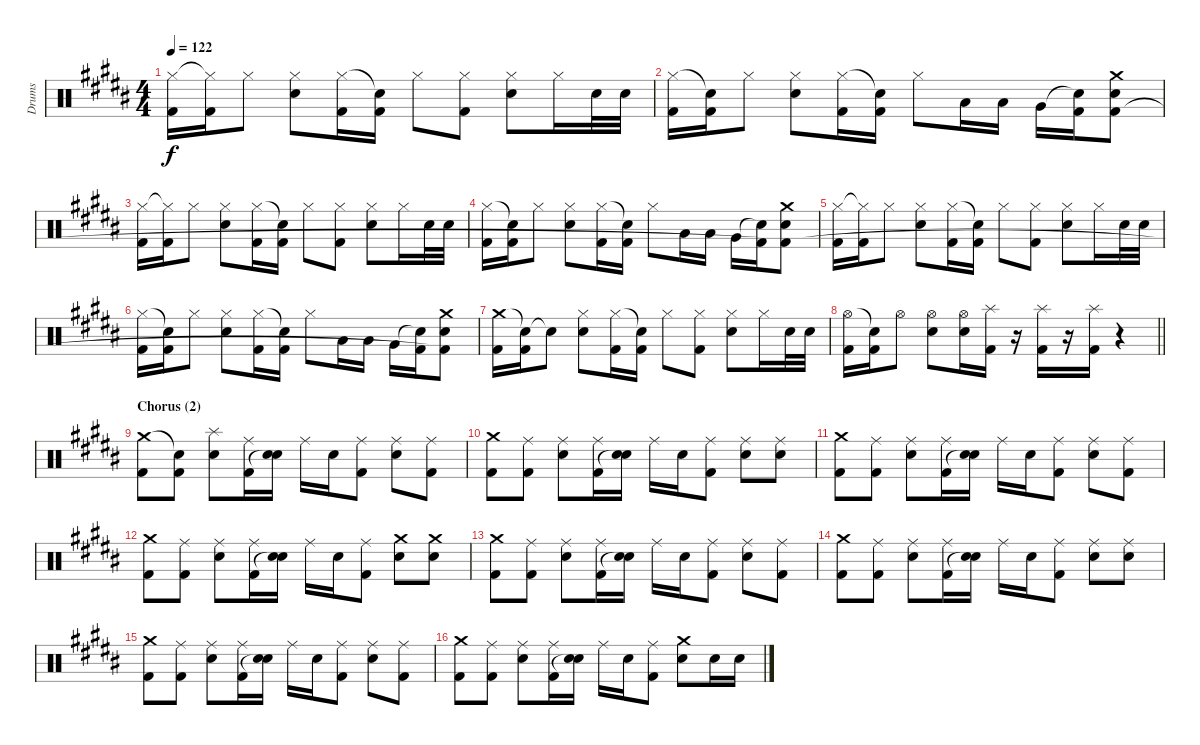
\track ("Drums" "Drums") {instrument percussion}
\staff {score}
\articulation defaults
\ts (4 4)
\tempo 122
\clef neutral
\ks g#minor
("Hi-Hat (closed)" "Kick (hit) 2").16{dy f} ("Hi-Hat (closed)"{t} "Kick (hit) 2").16 "Hi-Hat (closed)".8 ("Hi-Hat (closed)" "Electric Snare (hit)").8 ("Hi-Hat (closed)" "Kick (hit) 2").16 ("Snare (hit)"{t} "Kick (hit) 2").16 "Hi-Hat (closed)".8 ("Hi-Hat (closed)" "Kick (hit) 2").8 ("Hi-Hat (closed)" "Electric Snare (hit)").8 "Hi-Hat (closed)".16 "Electric Snare (hit)".32 "Electric Snare (hit)".32 |
("Hi-Hat (closed)" "Kick (hit) 2").16 ("Snare (hit)"{t} "Kick (hit) 2").16 "Hi-Hat (closed)".8 ("Hi-Hat (closed)" "Electric Snare (hit)").8 ("Hi-Hat (closed)" "Kick (hit) 2").16 ("Snare (hit)"{t} "Kick (hit) 2").16 "Hi-Hat (closed)".8 "Low Tom (hit)".16 "Low Tom (hit)".16 "Very Low Tom (hit)".16 ("Snare (hit)"{t} "Kick (hit) 2").16 ("Crash medium (hit)" "Electric Snare (hit)" "Kick (hit) 2"{t}).8 |
("Hi-Hat (closed)" "Kick (hit) 2").16 ("Hi-Hat (closed)"{t} "Kick (hit) 2").16 "Hi-Hat (closed)".8 ("Hi-Hat (closed)" "Electric Snare (hit)").8 ("Hi-Hat (closed)" "Kick (hit) 2").16 ("Snare (hit)"{t} "Kick (hit) 2").16 "Hi-Hat (closed)".8 ("Hi-Hat (closed)" "Kick (hit) 2").8 ("Hi-Hat (closed)" "Electric Snare (hit)").8 "Hi-Hat (closed)".16 "Electric Snare (hit)".32 "Electric Snare (hit)".32 |
("Hi-Hat (closed)" "Kick (hit) 2").16 ("Snare (hit)"{t} "Kick (hit) 2").16 "Hi-Hat (closed)".8 ("Hi-Hat (closed)" "Electric Snare (hit)").8 ("Hi-Hat (closed)" "Kick (hit) 2").16 ("Snare (hit)"{t} "Kick (hit) 2").16 "Hi-Hat (closed)".8 "Low Tom (hit)".16 "Low Tom (hit)".16 "Very Low Tom (hit)".16 ("Snare (hit)"{t} "Kick (hit) 2").16 ("Crash medium (hit)" "Electric Snare (hit)" "Kick (hit) 2"{t}).8 |
("Hi-Hat (closed)" "Kick (hit) 2").16 ("Hi-Hat (closed)"{t} "Kick (hit) 2").16 "Hi-Hat (closed)".8 ("Hi-Hat (closed)" "Electric Snare (hit)").8 ("Hi-Hat (closed)" "Kick (hit) 2").16 ("Snare (hit)"{t} "Kick (hit) 2").16 "Hi-Hat (closed)".8 ("Hi-Hat (closed)" "Kick (hit) 2").8 ("Hi-Hat (closed)" "Electric Snare (hit)").8 "Hi-Hat (closed)".16 "Electric Snare (hit)".32 "Electric Snare (hit)".32 |
("Hi-Hat (closed)" "Kick (hit) 2").16 ("Snare (hit)"{t} "Kick (hit) 2").16 "Hi-Hat (closed)".8 ("Hi-Hat (closed)" "Electric Snare (hit)").8 ("Hi-Hat (closed)" "Kick (hit) 2").16 ("Snare (hit)"{t} "Kick (hit) 2").16 "Hi-Hat (closed)".8 "Low Tom (hit)".16 "Low Tom (hit)".16 "Very Low Tom (hit)".16 ("Snare (hit)"{t} "Kick (hit) 2").16 ("Crash medium (hit)" "Electric Snare (hit)" "Kick (hit) 2"{t}).8 |
("Crash medium (hit)" "Kick (hit) 2").16 ("Snare (hit)"{t} "Kick (hit) 2").16 "Snare (hit)"{t}.8 ("Hi-Hat (closed)" "Electric Snare (hit)").8 ("Hi-Hat (closed)" "Kick (hit) 2").16 ("Snare (hit)"{t} "Kick (hit) 2").16 "Hi-Hat (closed)".8 ("Hi-Hat (closed)" "Kick (hit) 2").8 ("Hi-Hat (closed)" "Electric Snare (hit)").8 "Hi-Hat (closed)".16 "Electric Snare (hit)".32 "Electric Snare (hit)".32 |
\barLineRight lightlight
("Hi-Hat (open)" "Kick (hit) 2").16 ("Snare (hit)"{t} "Kick (hit) 2").16 "Hi-Hat (open)".8 ("Hi-Hat (open)" "Electric Snare (hit)").8 ("Hi-Hat (open)" "Electric Snare (hit)").16 ("Splash (hit)" "Kick (hit) 2").16 r.16 ("Splash (hit)" "Kick (hit) 2").16 r.16 ("Splash (hit)" "Kick (hit) 2").16 r.4 |
\section ("" "Chorus (2)")
("Crash medium (hit)" "Kick (hit) 2").8 ("Snare (hit)"{t} "Kick (hit) 2").8 ("Splash (hit)" "Electric Snare (hit)").8 ("Ride (middle)" "Kick (hit) 2").16 ("Electric Snare (hit)" "Snare (hit)"{t}).16 "Ride (middle)".16 "Electric Snare (hit)".16 ("Ride (middle)" "Kick (hit) 2").8 ("Ride (middle)" "Electric Snare (hit)").8 ("Ride (middle)" "Kick (hit) 2").8 |
("Crash medium (hit)" "Kick (hit) 2").8 ("Ride (middle)" "Kick (hit) 2").8 ("Ride (middle)" "Electric Snare (hit)").8 ("Ride (middle)" "Kick (hit) 2").16 ("Electric Snare (hit)" "Snare (hit)"{t}).16 "Ride (middle)".16 "Electric Snare (hit)".16 ("Ride (middle)" "Kick (hit) 2").8 ("Ride (middle)" "Electric Snare (hit)").8 ("Ride (middle)" "Electric Snare (hit)").8 |
("Crash medium (hit)" "Kick (hit) 2").8 ("Ride (middle)" "Kick (hit) 2").8 ("Ride (middle)" "Electric Snare (hit)").8 ("Ride (middle)" "Kick (hit) 2").16 ("Electric Snare (hit)" "Snare (hit)"{t}).16 "Ride (middle)".16 "Electric Snare (hit)".16 ("Ride (middle)" "Kick (hit) 2").8 ("Ride (middle)" "Electric Snare (hit)").8 ("Ride (middle)" "Kick (hit) 2").8 |
("Crash medium (hit)" "Kick (hit) 2").8 ("Ride (middle)" "Kick (hit) 2").8 ("Ride (middle)" "Electric Snare (hit)").8 ("Ride (middle)" "Kick (hit) 2").16 ("Electric Snare (hit)" "Snare (hit)"{t}).16 "Ride (middle)".16 "Electric Snare (hit)".16 ("Ride (middle)" "Kick (hit) 2").8 ("Crash medium (hit)" "Electric Snare (hit)").8 ("Crash medium (hit)" "Electric Snare (hit)").8 |
("Crash medium (hit)" "Kick (hit) 2").8 ("Ride (middle)" "Kick (hit) 2").8 ("Ride (middle)" "Electric Snare (hit)").8 ("Ride (middle)" "Kick (hit) 2").16 ("Electric Snare (hit)" "Snare (hit)"{t}).16 "Ride (middle)".16 "Electric Snare (hit)".16 ("Ride (middle)" "Kick (hit) 2").8 ("Ride (middle)" "Electric Snare (hit)").8 ("Ride (middle)" "Kick (hit) 2").8 |
("Crash medium (hit)" "Kick (hit) 2").8 ("Ride (middle)" "Kick (hit) 2").8 ("Ride (middle)" "Electric Snare (hit)").8 ("Ride (middle)" "Kick (hit) 2").16 ("Electric Snare (hit)" "Snare (hit)"{t}).16 "Ride (middle)".16 "Electric Snare (hit)".16 ("Ride (middle)" "Kick (hit) 2").8 ("Ride (middle)" "Electric Snare (hit)").8 ("Ride (middle)" "Electric Snare (hit)").8 |
("Crash medium (hit)" "Kick (hit) 2").8 ("Ride (middle)" "Kick (hit) 2").8 ("Ride (middle)" "Electric Snare (hit)").8 ("Ride (middle)" "Kick (hit) 2").16 ("Electric Snare (hit)" "Snare (hit)"{t}).16 "Ride (middle)".16 "Electric Snare (hit)".16 ("Ride (middle)" "Kick (hit) 2").8 ("Ride (middle)" "Electric Snare (hit)").8 ("Ride (middle)" "Kick (hit) 2").8 |
("Crash medium (hit)" "Kick (hit) 2").8 ("Ride (middle)" "Kick (hit) 2").8 ("Ride (middle)" "Electric Snare (hit)").8 ("Ride (middle)" "Kick (hit) 2").16 ("Electric Snare (hit)" "Snare (hit)"{t}).16 "Ride (middle)".16 "Electric Snare (hit)".16 ("Ride (middle)" "Kick (hit) 2").8 ("Crash medium (hit)" "Electric Snare (hit)").8 "Electric Snare (hit)".16 "Electric Snare (hit)".16
